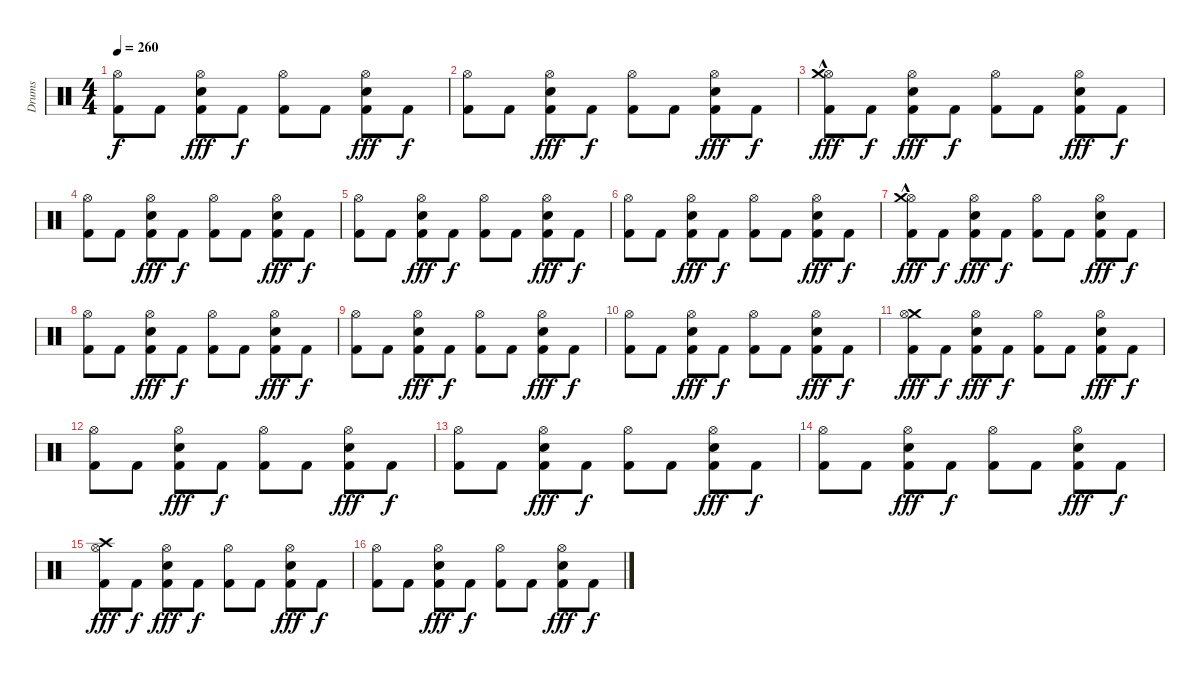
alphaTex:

\track ("Drums" "Drums") {instrument percussion}
\staff {score}
\articulation defaults
\ts (4 4)
\tempo 260
\clef neutral
\ks c
("Hi-Hat (open)" "Kick (hit) 2").8{dy f} "Kick (hit) 2".8 ("Hi-Hat (open)" "Snare (hit) 2" "Kick (hit) 2").8{dy fff} "Kick (hit) 2".8{dy f} ("Hi-Hat (open)" "Kick (hit) 2").8 "Kick (hit) 2".8 ("Hi-Hat (open)" "Snare (hit) 2" "Kick (hit) 2").8{dy fff} "Kick (hit) 2".8{dy f} |
("Hi-Hat (open)" "Kick (hit) 2").8 "Kick (hit) 2".8 ("Hi-Hat (open)" "Snare (hit) 2" "Kick (hit) 2").8{dy fff} "Kick (hit) 2".8{dy f} ("Hi-Hat (open)" "Kick (hit) 2").8 "Kick (hit) 2".8 ("Hi-Hat (open)" "Snare (hit) 2" "Kick (hit) 2").8{dy fff} "Kick (hit) 2".8{dy f} |
("Hi-Hat (open)" "Kick (hit) 2" "Crash medium (hit)"{hac}).8{dy fff} "Kick (hit) 2".8{dy f} ("Hi-Hat (open)" "Snare (hit) 2" "Kick (hit) 2").8{dy fff} "Kick (hit) 2".8{dy f} ("Hi-Hat (open)" "Kick (hit) 2").8 "Kick (hit) 2".8 ("Hi-Hat (open)" "Snare (hit) 2" "Kick (hit) 2").8{dy fff} "Kick (hit) 2".8{dy f} |
("Hi-Hat (open)" "Kick (hit) 2").8 "Kick (hit) 2".8 ("Hi-Hat (open)" "Snare (hit) 2" "Kick (hit) 2").8{dy fff} "Kick (hit) 2".8{dy f} ("Hi-Hat (open)" "Kick (hit) 2").8 "Kick (hit) 2".8 ("Hi-Hat (open)" "Snare (hit) 2" "Kick (hit) 2").8{dy fff} "Kick (hit) 2".8{dy f} |
("Hi-Hat (open)" "Kick (hit) 2").8 "Kick (hit) 2".8 ("Hi-Hat (open)" "Snare (hit) 2" "Kick (hit) 2").8{dy fff} "Kick (hit) 2".8{dy f} ("Hi-Hat (open)" "Kick (hit) 2").8 "Kick (hit) 2".8 ("Hi-Hat (open)" "Snare (hit) 2" "Kick (hit) 2").8{dy fff} "Kick (hit) 2".8{dy f} |
("Hi-Hat (open)" "Kick (hit) 2").8 "Kick (hit) 2".8 ("Hi-Hat (open)" "Snare (hit) 2" "Kick (hit) 2").8{dy fff} "Kick (hit) 2".8{dy f} ("Hi-Hat (open)" "Kick (hit) 2").8 "Kick (hit) 2".8 ("Hi-Hat (open)" "Snare (hit) 2" "Kick (hit) 2").8{dy fff} "Kick (hit) 2".8{dy f} |
("Hi-Hat (open)" "Kick (hit) 2" "Crash medium (hit)"{hac}).8{dy fff} "Kick (hit) 2".8{dy f} ("Hi-Hat (open)" "Snare (hit) 2" "Kick (hit) 2").8{dy fff} "Kick (hit) 2".8{dy f} ("Hi-Hat (open)" "Kick (hit) 2").8 "Kick (hit) 2".8 ("Hi-Hat (open)" "Snare (hit) 2" "Kick (hit) 2").8{dy fff} "Kick (hit) 2".8{dy f} |
("Hi-Hat (open)" "Kick (hit) 2").8 "Kick (hit) 2".8 ("Hi-Hat (open)" "Snare (hit) 2" "Kick (hit) 2").8{dy fff} "Kick (hit) 2".8{dy f} ("Hi-Hat (open)" "Kick (hit) 2").8 "Kick (hit) 2".8 ("Hi-Hat (open)" "Snare (hit) 2" "Kick (hit) 2").8{dy fff} "Kick (hit) 2".8{dy f} |
("Hi-Hat (open)" "Kick (hit) 2").8 "Kick (hit) 2".8 ("Hi-Hat (open)" "Snare (hit) 2" "Kick (hit) 2").8{dy fff} "Kick (hit) 2".8{dy f} ("Hi-Hat (open)" "Kick (hit) 2").8 "Kick (hit) 2".8 ("Hi-Hat (open)" "Snare (hit) 2" "Kick (hit) 2").8{dy fff} "Kick (hit) 2".8{dy f} |
("Hi-Hat (open)" "Kick (hit) 2").8 "Kick (hit) 2".8 ("Hi-Hat (open)" "Snare (hit) 2" "Kick (hit) 2").8{dy fff} "Kick (hit) 2".8{dy f} ("Hi-Hat (open)" "Kick (hit) 2").8 "Kick (hit) 2".8 ("Hi-Hat (open)" "Snare (hit) 2" "Kick (hit) 2").8{dy fff} "Kick (hit) 2".8{dy f} |
("Crash medium (hit)" "Hi-Hat (open)" "Kick (hit) 2").8{dy fff} "Kick (hit) 2".8{dy f} ("Hi-Hat (open)" "Snare (hit) 2" "Kick (hit) 2").8{dy fff} "Kick (hit) 2".8{dy f} ("Hi-Hat (open)" "Kick (hit) 2").8 "Kick (hit) 2".8 ("Hi-Hat (open)" "Snare (hit) 2" "Kick (hit) 2").8{dy fff} "Kick (hit) 2".8{dy f} |
("Hi-Hat (open)" "Kick (hit) 2").8 "Kick (hit) 2".8 ("Hi-Hat (open)" "Snare (hit) 2" "Kick (hit) 2").8{dy fff} "Kick (hit) 2".8{dy f} ("Hi-Hat (open)" "Kick (hit) 2").8 "Kick (hit) 2".8 ("Hi-Hat (open)" "Snare (hit) 2" "Kick (hit) 2").8{dy fff} "Kick (hit) 2".8{dy f} |
("Hi-Hat (open)" "Kick (hit) 2").8 "Kick (hit) 2".8 ("Hi-Hat (open)" "Snare (hit) 2" "Kick (hit) 2").8{dy fff} "Kick (hit) 2".8{dy f} ("Hi-Hat (open)" "Kick (hit) 2").8 "Kick (hit) 2".8 ("Hi-Hat (open)" "Snare (hit) 2" "Kick (hit) 2").8{dy fff} "Kick (hit) 2".8{dy f} |
("Hi-Hat (open)" "Kick (hit) 2").8 "Kick (hit) 2".8 ("Hi-Hat (open)" "Snare (hit) 2" "Kick (hit) 2").8{dy fff} "Kick (hit) 2".8{dy f} ("Hi-Hat (open)" "Kick (hit) 2").8 "Kick (hit) 2".8 ("Hi-Hat (open)" "Snare (hit) 2" "Kick (hit) 2").8{dy fff} "Kick (hit) 2".8{dy f} |
("Crash high (hit)" "Hi-Hat (open)" "Kick (hit) 2").8{dy fff} "Kick (hit) 2".8{dy f} ("Hi-Hat (open)" "Snare (hit) 2" "Kick (hit) 2").8{dy fff} "Kick (hit) 2".8{dy f} ("Hi-Hat (open)" "Kick (hit) 2").8 "Kick (hit) 2".8 ("Hi-Hat (open)" "Snare (hit) 2" "Kick (hit) 2").8{dy fff} "Kick (hit) 2".8{dy f} |
("Hi-Hat (open)" "Kick (hit) 2").8 "Kick (hit) 2".8 ("Hi-Hat (open)" "Snare (hit) 2" "Kick (hit) 2").8{dy fff} "Kick (hit) 2".8{dy f} ("Hi-Hat (open)" "Kick (hit) 2").8 "Kick (hit) 2".8 ("Hi-Hat (open)" "Snare (hit) 2" "Kick (hit) 2").8{dy fff} "Kick (hit) 2".8{dy f}
